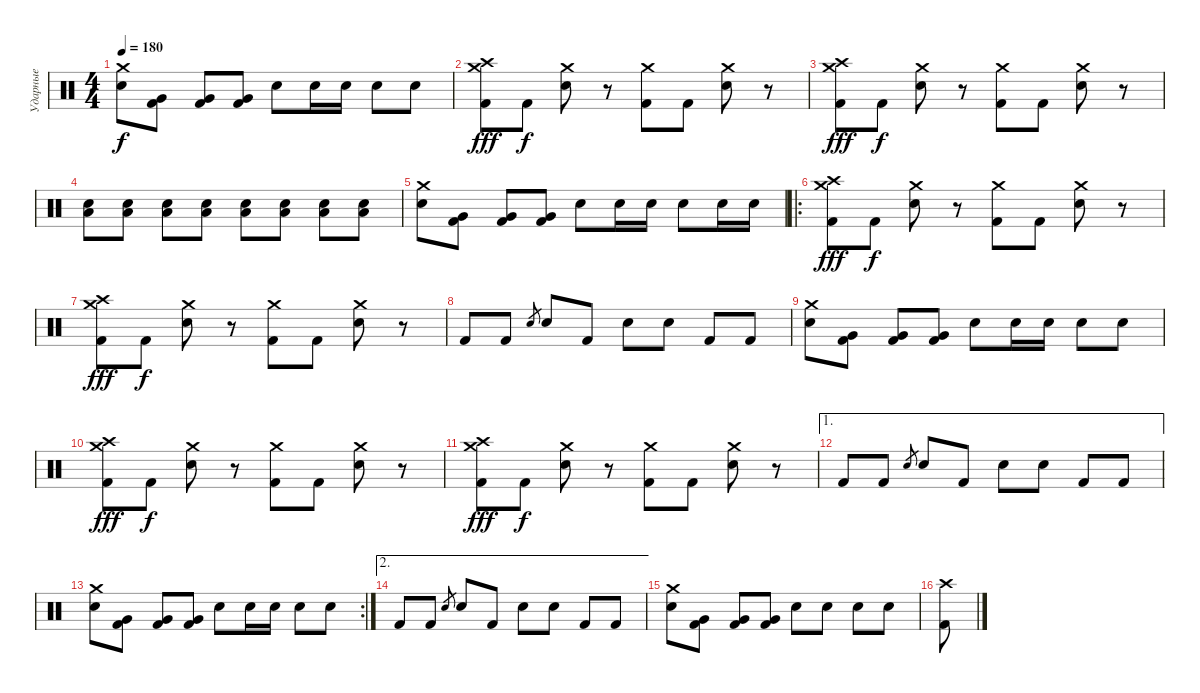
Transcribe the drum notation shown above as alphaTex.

\track ("Ударные" "Ударные") {instrument percussion}
\staff {score}
\articulation defaults
\ts (4 4)
\tempo 180
\clef neutral
\ks c
("Crash medium (hit)" "Electric Snare (hit)").8{dy f} ("Very Low Tom (hit)" "Kick (hit) 2").8 ("Very Low Tom (hit)" "Kick (hit) 2").8 ("Very Low Tom (hit)" "Kick (hit) 2").8 "Electric Snare (hit)".8 "Electric Snare (hit)".16 "Electric Snare (hit)".16 "Electric Snare (hit)".8 "Electric Snare (hit)".8 |
("Crash high (hit)" "Crash medium (hit)" "Kick (hit) 2").8{dy fff} "Kick (hit) 2".8{dy f} ("Crash medium (hit)" "Electric Snare (hit)").8 r.8 ("Crash medium (hit)" "Kick (hit) 2").8 "Kick (hit) 2".8 ("Crash medium (hit)" "Electric Snare (hit)").8 r.8 |
("Crash high (hit)" "Crash medium (hit)" "Kick (hit) 2").8{dy fff} "Kick (hit) 2".8{dy f} ("Crash medium (hit)" "Electric Snare (hit)").8 r.8 ("Crash medium (hit)" "Kick (hit) 2").8 "Kick (hit) 2".8 ("Crash medium (hit)" "Electric Snare (hit)").8 r.8 |
("Electric Snare (hit)" "Low Tom (hit)").8 ("Electric Snare (hit)" "Low Tom (hit)").8 ("Electric Snare (hit)" "Low Tom (hit)").8 ("Electric Snare (hit)" "Low Tom (hit)").8 ("Electric Snare (hit)" "Low Tom (hit)").8 ("Electric Snare (hit)" "Low Tom (hit)").8 ("Electric Snare (hit)" "Low Tom (hit)").8 ("Electric Snare (hit)" "Low Tom (hit)").8 |
("Crash medium (hit)" "Electric Snare (hit)").8 ("Very Low Tom (hit)" "Kick (hit) 2").8 ("Very Low Tom (hit)" "Kick (hit) 2").8 ("Very Low Tom (hit)" "Kick (hit) 2").8 "Electric Snare (hit)".8 "Electric Snare (hit)".16 "Electric Snare (hit)".16 "Electric Snare (hit)".8 "Electric Snare (hit)".16 "Electric Snare (hit)".16 |
\ro
("Crash high (hit)" "Crash medium (hit)" "Kick (hit) 2").8{dy fff} "Kick (hit) 2".8{dy f} ("Crash medium (hit)" "Electric Snare (hit)").8 r.8 ("Crash medium (hit)" "Kick (hit) 2").8 "Kick (hit) 2".8 ("Crash medium (hit)" "Electric Snare (hit)").8 r.8 |
("Crash high (hit)" "Crash medium (hit)" "Kick (hit) 2").8{dy fff} "Kick (hit) 2".8{dy f} ("Crash medium (hit)" "Electric Snare (hit)").8 r.8 ("Crash medium (hit)" "Kick (hit) 2").8 "Kick (hit) 2".8 ("Crash medium (hit)" "Electric Snare (hit)").8 r.8 |
"Kick (hit) 2".8 "Kick (hit) 2".8 "Electric Snare (hit)".8{gr} "Electric Snare (hit)".8 "Kick (hit) 2".8 "Electric Snare (hit)".8 "Electric Snare (hit)".8 "Kick (hit) 2".8 "Kick (hit) 2".8 |
("Crash medium (hit)" "Electric Snare (hit)").8 ("Very Low Tom (hit)" "Kick (hit) 2").8 ("Very Low Tom (hit)" "Kick (hit) 2").8 ("Very Low Tom (hit)" "Kick (hit) 2").8 "Electric Snare (hit)".8 "Electric Snare (hit)".16 "Electric Snare (hit)".16 "Electric Snare (hit)".8 "Electric Snare (hit)".8 |
("Crash high (hit)" "Crash medium (hit)" "Kick (hit) 2").8{dy fff} "Kick (hit) 2".8{dy f} ("Crash medium (hit)" "Electric Snare (hit)").8 r.8 ("Crash medium (hit)" "Kick (hit) 2").8 "Kick (hit) 2".8 ("Crash medium (hit)" "Electric Snare (hit)").8 r.8 |
("Crash high (hit)" "Crash medium (hit)" "Kick (hit) 2").8{dy fff} "Kick (hit) 2".8{dy f} ("Crash medium (hit)" "Electric Snare (hit)").8 r.8 ("Crash medium (hit)" "Kick (hit) 2").8 "Kick (hit) 2".8 ("Crash medium (hit)" "Electric Snare (hit)").8 r.8 |
\ae 1 "Kick (hit) 2".8 "Kick (hit) 2".8 "Electric Snare (hit)".8{gr} "Electric Snare (hit)".8 "Kick (hit) 2".8 "Electric Snare (hit)".8 "Electric Snare (hit)".8 "Kick (hit) 2".8 "Kick (hit) 2".8
|
\rc 2
("Crash medium (hit)" "Electric Snare (hit)").8 ("Very Low Tom (hit)" "Kick (hit) 2").8 ("Very Low Tom (hit)" "Kick (hit) 2").8 ("Very Low Tom (hit)" "Kick (hit) 2").8 "Electric Snare (hit)".8 "Electric Snare (hit)".16 "Electric Snare (hit)".16 "Electric Snare (hit)".8 "Electric Snare (hit)".8 |
\ae 2 "Kick (hit) 2".8 "Kick (hit) 2".8 "Electric Snare (hit)".8{gr} "Electric Snare (hit)".8 "Kick (hit) 2".8 "Electric Snare (hit)".8 "Electric Snare (hit)".8 "Kick (hit) 2".8 "Kick (hit) 2".8
|
("Crash medium (hit)" "Electric Snare (hit)").8 ("Very Low Tom (hit)" "Kick (hit) 2").8 ("Very Low Tom (hit)" "Kick (hit) 2").8 ("Very Low Tom (hit)" "Kick (hit) 2").8 "Electric Snare (hit)".8 "Electric Snare (hit)".8 "Electric Snare (hit)".8 "Electric Snare (hit)".8 |
("Crash high (hit)" "Kick (hit) 2").8
